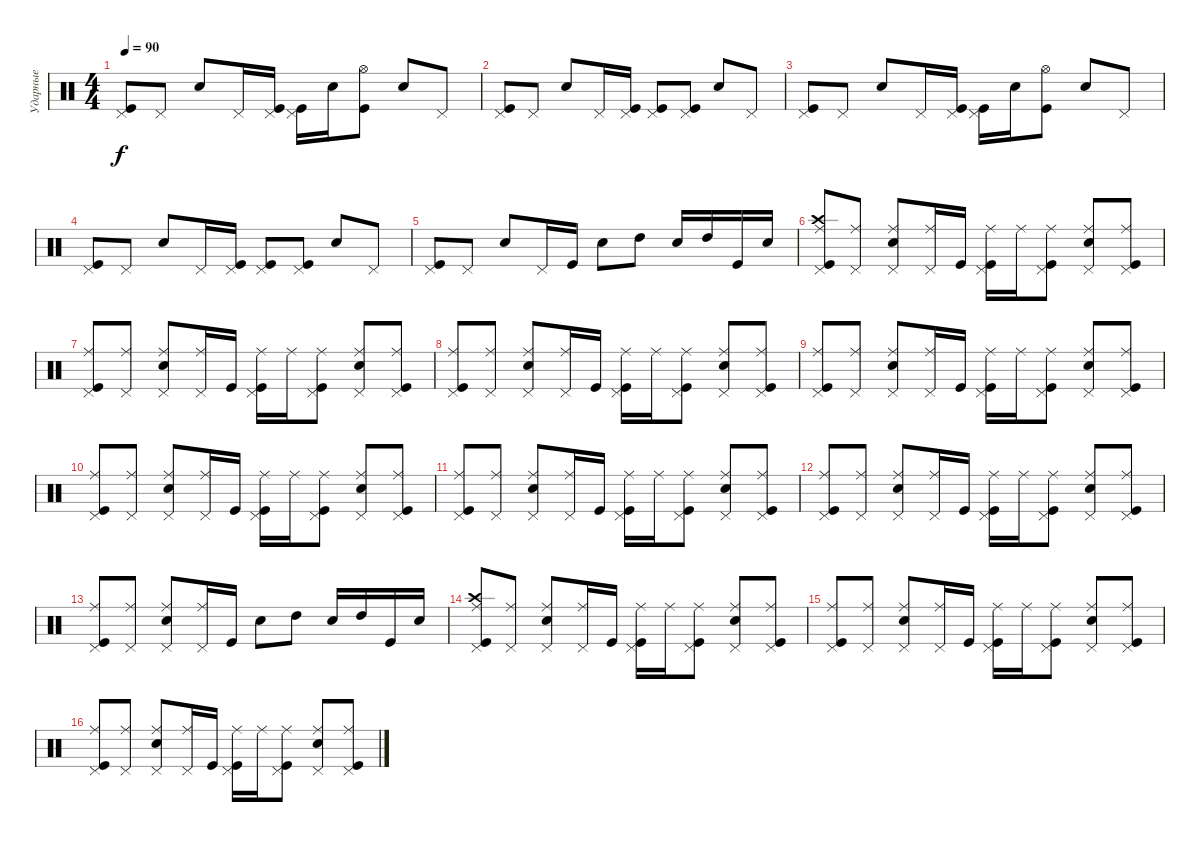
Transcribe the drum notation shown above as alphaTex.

\track ("Ударные" "Ударные") {instrument percussion}
\staff {score}
\articulation defaults
\ts (4 4)
\tempo 90
\clef neutral
\ks c
("Kick (hit)" "Pedal Hi-Hat (hit)").8{dy f} "Pedal Hi-Hat (hit)".8 "Electric Snare (hit)".8 "Pedal Hi-Hat (hit)".16 ("Kick (hit)" "Pedal Hi-Hat (hit)").16 ("Kick (hit)" "Pedal Hi-Hat (hit)").16 "Electric Snare (hit)".16 ("Kick (hit)" "Hi-Hat (open)").8 "Electric Snare (hit)".8 "Pedal Hi-Hat (hit)".8 |
("Kick (hit)" "Pedal Hi-Hat (hit)").8 "Pedal Hi-Hat (hit)".8 "Electric Snare (hit)".8 "Pedal Hi-Hat (hit)".16 ("Kick (hit)" "Pedal Hi-Hat (hit)").16 ("Kick (hit)" "Pedal Hi-Hat (hit)").8 ("Kick (hit)" "Pedal Hi-Hat (hit)").8 "Electric Snare (hit)".8 "Pedal Hi-Hat (hit)".8 |
("Kick (hit)" "Pedal Hi-Hat (hit)").8 "Pedal Hi-Hat (hit)".8 "Electric Snare (hit)".8 "Pedal Hi-Hat (hit)".16 ("Kick (hit)" "Pedal Hi-Hat (hit)").16 ("Kick (hit)" "Pedal Hi-Hat (hit)").16 "Electric Snare (hit)".16 ("Kick (hit)" "Hi-Hat (open)").8 "Electric Snare (hit)".8 "Pedal Hi-Hat (hit)".8 |
("Kick (hit)" "Pedal Hi-Hat (hit)").8 "Pedal Hi-Hat (hit)".8 "Electric Snare (hit)".8 "Pedal Hi-Hat (hit)".16 ("Kick (hit)" "Pedal Hi-Hat (hit)").16 ("Kick (hit)" "Pedal Hi-Hat (hit)").8 ("Kick (hit)" "Pedal Hi-Hat (hit)").8 "Electric Snare (hit)".8 "Pedal Hi-Hat (hit)".8 |
("Kick (hit)" "Pedal Hi-Hat (hit)").8 "Pedal Hi-Hat (hit)".8 "Electric Snare (hit)".8 "Pedal Hi-Hat (hit)".16 "Kick (hit)".16 "Electric Snare (hit)".8 "High Tom (hit)".8 "Electric Snare (hit)".16 "High Tom (hit)".16 "Kick (hit)".16 "Electric Snare (hit)".16 |
("Kick (hit)" "Crash high (hit)" "Pedal Hi-Hat (hit)" "Ride (middle)").8 ("Pedal Hi-Hat (hit)" "Ride (middle)").8 ("Electric Snare (hit)" "Pedal Hi-Hat (hit)" "Ride (middle)").8 ("Pedal Hi-Hat (hit)" "Ride (middle)").16 "Kick (hit)".16 ("Kick (hit)" "Pedal Hi-Hat (hit)" "Ride (middle)").16 "Ride (middle)".16 ("Kick (hit)" "Pedal Hi-Hat (hit)" "Ride (middle)").8 ("Electric Snare (hit)" "Pedal Hi-Hat (hit)" "Ride (middle)").8 ("Kick (hit)" "Pedal Hi-Hat (hit)" "Ride (middle)").8 |
("Kick (hit)" "Pedal Hi-Hat (hit)" "Ride (middle)").8 ("Pedal Hi-Hat (hit)" "Ride (middle)").8 ("Electric Snare (hit)" "Pedal Hi-Hat (hit)" "Ride (middle)").8 ("Pedal Hi-Hat (hit)" "Ride (middle)").16 "Kick (hit)".16 ("Kick (hit)" "Pedal Hi-Hat (hit)" "Ride (middle)").16 "Ride (middle)".16 ("Kick (hit)" "Pedal Hi-Hat (hit)" "Ride (middle)").8 ("Electric Snare (hit)" "Pedal Hi-Hat (hit)" "Ride (middle)").8 ("Kick (hit)" "Pedal Hi-Hat (hit)" "Ride (middle)").8 |
("Kick (hit)" "Pedal Hi-Hat (hit)" "Ride (middle)").8 ("Pedal Hi-Hat (hit)" "Ride (middle)").8 ("Electric Snare (hit)" "Pedal Hi-Hat (hit)" "Ride (middle)").8 ("Pedal Hi-Hat (hit)" "Ride (middle)").16 "Kick (hit)".16 ("Kick (hit)" "Pedal Hi-Hat (hit)" "Ride (middle)").16 "Ride (middle)".16 ("Kick (hit)" "Pedal Hi-Hat (hit)" "Ride (middle)").8 ("Electric Snare (hit)" "Pedal Hi-Hat (hit)" "Ride (middle)").8 ("Kick (hit)" "Pedal Hi-Hat (hit)" "Ride (middle)").8 |
("Kick (hit)" "Pedal Hi-Hat (hit)" "Ride (middle)").8 ("Pedal Hi-Hat (hit)" "Ride (middle)").8 ("Electric Snare (hit)" "Pedal Hi-Hat (hit)" "Ride (middle)").8 ("Pedal Hi-Hat (hit)" "Ride (middle)").16 "Kick (hit)".16 ("Kick (hit)" "Pedal Hi-Hat (hit)" "Ride (middle)").16 "Ride (middle)".16 ("Kick (hit)" "Pedal Hi-Hat (hit)" "Ride (middle)").8 ("Electric Snare (hit)" "Pedal Hi-Hat (hit)" "Ride (middle)").8 ("Kick (hit)" "Pedal Hi-Hat (hit)" "Ride (middle)").8 |
("Kick (hit)" "Pedal Hi-Hat (hit)" "Ride (middle)").8 ("Pedal Hi-Hat (hit)" "Ride (middle)").8 ("Electric Snare (hit)" "Pedal Hi-Hat (hit)" "Ride (middle)").8 ("Pedal Hi-Hat (hit)" "Ride (middle)").16 "Kick (hit)".16 ("Kick (hit)" "Pedal Hi-Hat (hit)" "Ride (middle)").16 "Ride (middle)".16 ("Kick (hit)" "Pedal Hi-Hat (hit)" "Ride (middle)").8 ("Electric Snare (hit)" "Pedal Hi-Hat (hit)" "Ride (middle)").8 ("Kick (hit)" "Pedal Hi-Hat (hit)" "Ride (middle)").8 |
("Kick (hit)" "Pedal Hi-Hat (hit)" "Ride (middle)").8 ("Pedal Hi-Hat (hit)" "Ride (middle)").8 ("Electric Snare (hit)" "Pedal Hi-Hat (hit)" "Ride (middle)").8 ("Pedal Hi-Hat (hit)" "Ride (middle)").16 "Kick (hit)".16 ("Kick (hit)" "Pedal Hi-Hat (hit)" "Ride (middle)").16 "Ride (middle)".16 ("Kick (hit)" "Pedal Hi-Hat (hit)" "Ride (middle)").8 ("Electric Snare (hit)" "Pedal Hi-Hat (hit)" "Ride (middle)").8 ("Kick (hit)" "Pedal Hi-Hat (hit)" "Ride (middle)").8 |
("Kick (hit)" "Pedal Hi-Hat (hit)" "Ride (middle)").8 ("Pedal Hi-Hat (hit)" "Ride (middle)").8 ("Electric Snare (hit)" "Pedal Hi-Hat (hit)" "Ride (middle)").8 ("Pedal Hi-Hat (hit)" "Ride (middle)").16 "Kick (hit)".16 ("Kick (hit)" "Pedal Hi-Hat (hit)" "Ride (middle)").16 "Ride (middle)".16 ("Kick (hit)" "Pedal Hi-Hat (hit)" "Ride (middle)").8 ("Electric Snare (hit)" "Pedal Hi-Hat (hit)" "Ride (middle)").8 ("Kick (hit)" "Pedal Hi-Hat (hit)" "Ride (middle)").8 |
("Kick (hit)" "Pedal Hi-Hat (hit)" "Ride (middle)").8 ("Pedal Hi-Hat (hit)" "Ride (middle)").8 ("Electric Snare (hit)" "Pedal Hi-Hat (hit)" "Ride (middle)").8 ("Pedal Hi-Hat (hit)" "Ride (middle)").16 "Kick (hit)".16 "Electric Snare (hit)".8 "High Tom (hit)".8 "Electric Snare (hit)".16 "High Tom (hit)".16 "Kick (hit)".16 "Electric Snare (hit)".16 |
("Kick (hit)" "Crash high (hit)" "Pedal Hi-Hat (hit)" "Ride (middle)").8 ("Pedal Hi-Hat (hit)" "Ride (middle)").8 ("Electric Snare (hit)" "Pedal Hi-Hat (hit)" "Ride (middle)").8 ("Pedal Hi-Hat (hit)" "Ride (middle)").16 "Kick (hit)".16 ("Kick (hit)" "Pedal Hi-Hat (hit)" "Ride (middle)").16 "Ride (middle)".16 ("Kick (hit)" "Pedal Hi-Hat (hit)" "Ride (middle)").8 ("Electric Snare (hit)" "Pedal Hi-Hat (hit)" "Ride (middle)").8 ("Kick (hit)" "Pedal Hi-Hat (hit)" "Ride (middle)").8 |
("Kick (hit)" "Pedal Hi-Hat (hit)" "Ride (middle)").8 ("Pedal Hi-Hat (hit)" "Ride (middle)").8 ("Electric Snare (hit)" "Pedal Hi-Hat (hit)" "Ride (middle)").8 ("Pedal Hi-Hat (hit)" "Ride (middle)").16 "Kick (hit)".16 ("Kick (hit)" "Pedal Hi-Hat (hit)" "Ride (middle)").16 "Ride (middle)".16 ("Kick (hit)" "Pedal Hi-Hat (hit)" "Ride (middle)").8 ("Electric Snare (hit)" "Pedal Hi-Hat (hit)" "Ride (middle)").8 ("Kick (hit)" "Pedal Hi-Hat (hit)" "Ride (middle)").8 |
("Kick (hit)" "Pedal Hi-Hat (hit)" "Ride (middle)").8 ("Pedal Hi-Hat (hit)" "Ride (middle)").8 ("Electric Snare (hit)" "Pedal Hi-Hat (hit)" "Ride (middle)").8 ("Pedal Hi-Hat (hit)" "Ride (middle)").16 "Kick (hit)".16 ("Kick (hit)" "Pedal Hi-Hat (hit)" "Ride (middle)").16 "Ride (middle)".16 ("Kick (hit)" "Pedal Hi-Hat (hit)" "Ride (middle)").8 ("Electric Snare (hit)" "Pedal Hi-Hat (hit)" "Ride (middle)").8 ("Kick (hit)" "Pedal Hi-Hat (hit)" "Ride (middle)").8
